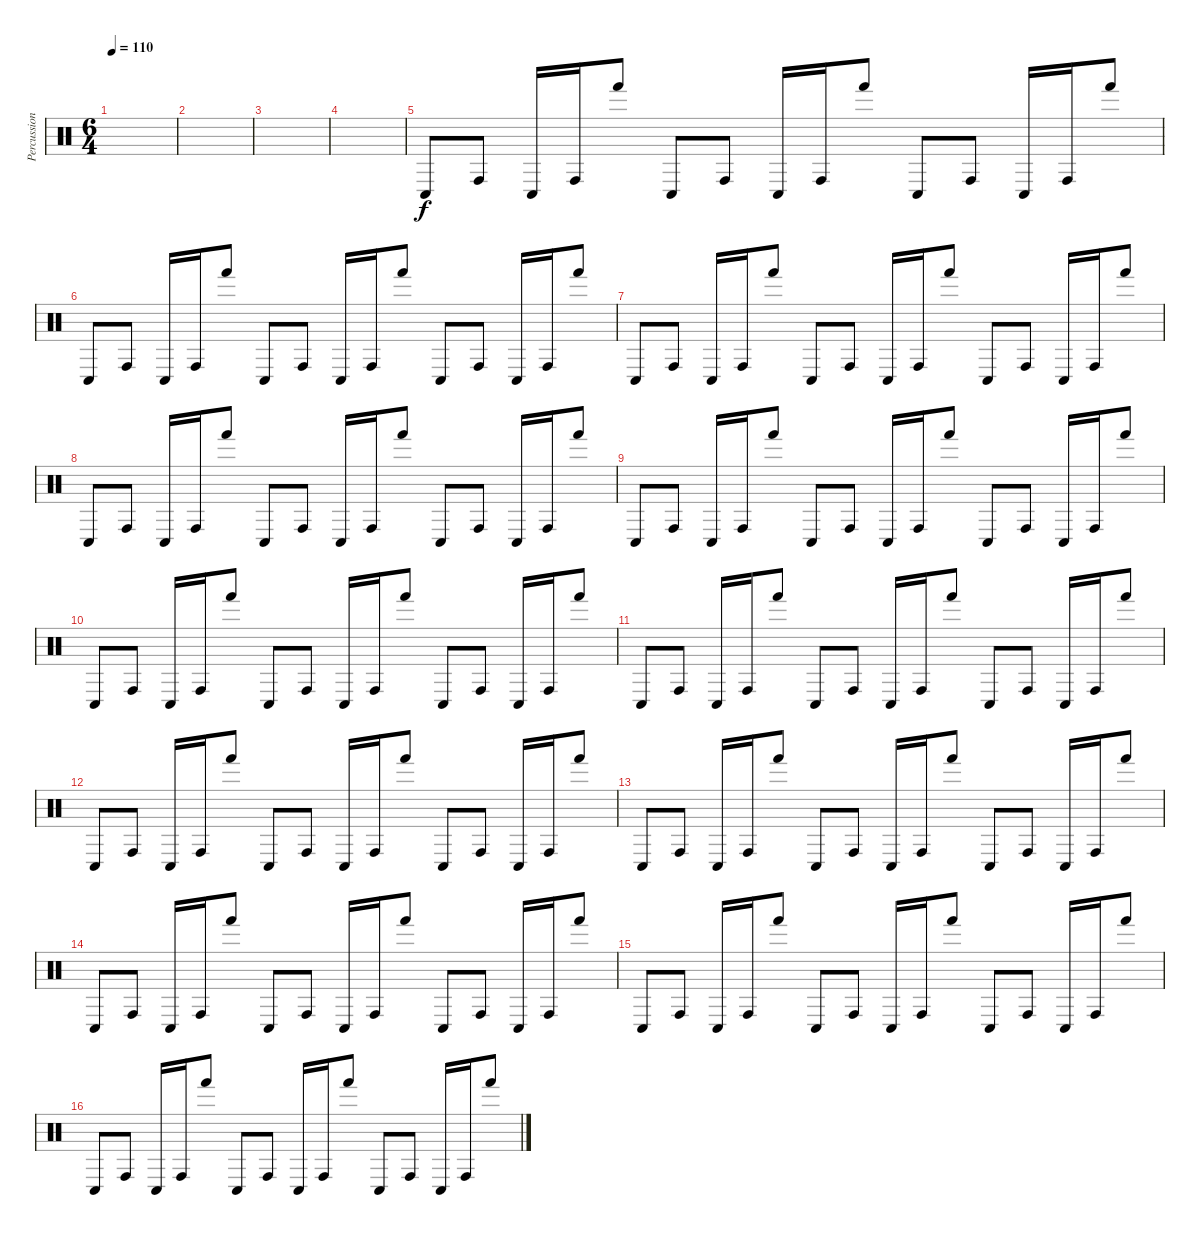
\track ("Percussion" "Percussion") {instrument percussion}
\staff {score}
\articulation defaults
\ts (6 4)
\tempo 110
\clef neutral
\ks c
|
|
|
|
"Conga low (hit)".8 "Conga high (hit)".8 "Conga low (hit)".16 "Conga high (hit)".16 "Hand (hit)".8 "Conga low (hit)".8 "Conga high (hit)".8 "Conga low (hit)".16 "Conga high (hit)".16 "Hand (hit)".8 "Conga low (hit)".8 "Conga high (hit)".8 "Conga low (hit)".16 "Conga high (hit)".16 "Hand (hit)".8 |
"Conga low (hit)".8 "Conga high (hit)".8 "Conga low (hit)".16 "Conga high (hit)".16 "Hand (hit)".8 "Conga low (hit)".8 "Conga high (hit)".8 "Conga low (hit)".16 "Conga high (hit)".16 "Hand (hit)".8 "Conga low (hit)".8 "Conga high (hit)".8 "Conga low (hit)".16 "Conga high (hit)".16 "Hand (hit)".8 |
"Conga low (hit)".8 "Conga high (hit)".8 "Conga low (hit)".16 "Conga high (hit)".16 "Hand (hit)".8 "Conga low (hit)".8 "Conga high (hit)".8 "Conga low (hit)".16 "Conga high (hit)".16 "Hand (hit)".8 "Conga low (hit)".8 "Conga high (hit)".8 "Conga low (hit)".16 "Conga high (hit)".16 "Hand (hit)".8 |
"Conga low (hit)".8 "Conga high (hit)".8 "Conga low (hit)".16 "Conga high (hit)".16 "Hand (hit)".8 "Conga low (hit)".8 "Conga high (hit)".8 "Conga low (hit)".16 "Conga high (hit)".16 "Hand (hit)".8 "Conga low (hit)".8 "Conga high (hit)".8 "Conga low (hit)".16 "Conga high (hit)".16 "Hand (hit)".8 |
"Conga low (hit)".8 "Conga high (hit)".8 "Conga low (hit)".16 "Conga high (hit)".16 "Hand (hit)".8 "Conga low (hit)".8 "Conga high (hit)".8 "Conga low (hit)".16 "Conga high (hit)".16 "Hand (hit)".8 "Conga low (hit)".8 "Conga high (hit)".8 "Conga low (hit)".16 "Conga high (hit)".16 "Hand (hit)".8 |
"Conga low (hit)".8 "Conga high (hit)".8 "Conga low (hit)".16 "Conga high (hit)".16 "Hand (hit)".8 "Conga low (hit)".8 "Conga high (hit)".8 "Conga low (hit)".16 "Conga high (hit)".16 "Hand (hit)".8 "Conga low (hit)".8 "Conga high (hit)".8 "Conga low (hit)".16 "Conga high (hit)".16 "Hand (hit)".8 |
"Conga low (hit)".8 "Conga high (hit)".8 "Conga low (hit)".16 "Conga high (hit)".16 "Hand (hit)".8 "Conga low (hit)".8 "Conga high (hit)".8 "Conga low (hit)".16 "Conga high (hit)".16 "Hand (hit)".8 "Conga low (hit)".8 "Conga high (hit)".8 "Conga low (hit)".16 "Conga high (hit)".16 "Hand (hit)".8 |
"Conga low (hit)".8 "Conga high (hit)".8 "Conga low (hit)".16 "Conga high (hit)".16 "Hand (hit)".8 "Conga low (hit)".8 "Conga high (hit)".8 "Conga low (hit)".16 "Conga high (hit)".16 "Hand (hit)".8 "Conga low (hit)".8 "Conga high (hit)".8 "Conga low (hit)".16 "Conga high (hit)".16 "Hand (hit)".8 |
"Conga low (hit)".8 "Conga high (hit)".8 "Conga low (hit)".16 "Conga high (hit)".16 "Hand (hit)".8 "Conga low (hit)".8 "Conga high (hit)".8 "Conga low (hit)".16 "Conga high (hit)".16 "Hand (hit)".8 "Conga low (hit)".8 "Conga high (hit)".8 "Conga low (hit)".16 "Conga high (hit)".16 "Hand (hit)".8 |
"Conga low (hit)".8 "Conga high (hit)".8 "Conga low (hit)".16 "Conga high (hit)".16 "Hand (hit)".8 "Conga low (hit)".8 "Conga high (hit)".8 "Conga low (hit)".16 "Conga high (hit)".16 "Hand (hit)".8 "Conga low (hit)".8 "Conga high (hit)".8 "Conga low (hit)".16 "Conga high (hit)".16 "Hand (hit)".8 |
"Conga low (hit)".8 "Conga high (hit)".8 "Conga low (hit)".16 "Conga high (hit)".16 "Hand (hit)".8 "Conga low (hit)".8 "Conga high (hit)".8 "Conga low (hit)".16 "Conga high (hit)".16 "Hand (hit)".8 "Conga low (hit)".8 "Conga high (hit)".8 "Conga low (hit)".16 "Conga high (hit)".16 "Hand (hit)".8 |
"Conga low (hit)".8 "Conga high (hit)".8 "Conga low (hit)".16 "Conga high (hit)".16 "Hand (hit)".8 "Conga low (hit)".8 "Conga high (hit)".8 "Conga low (hit)".16 "Conga high (hit)".16 "Hand (hit)".8 "Conga low (hit)".8 "Conga high (hit)".8 "Conga low (hit)".16 "Conga high (hit)".16 "Hand (hit)".8
